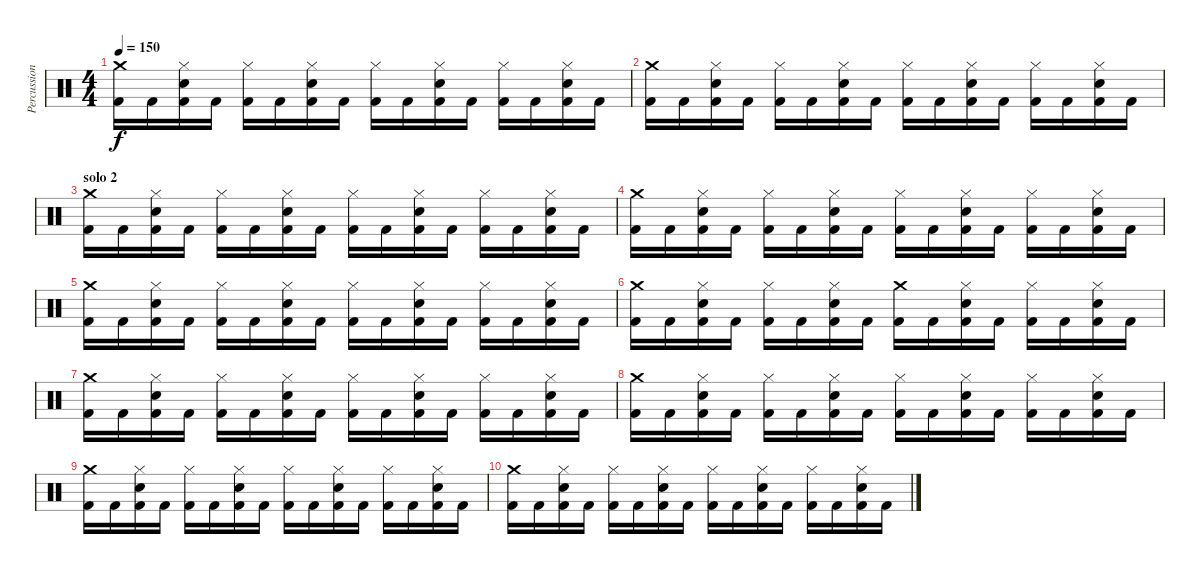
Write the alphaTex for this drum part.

\track ("Percussioni" "Percussion") {instrument percussion}
\staff {score}
\articulation defaults
\ts (4 4)
\tempo 150
\clef neutral
\ks c
("Crash medium (hit)" "Kick (hit) 2").16{dy f} "Kick (hit) 2".16 ("Hi-Hat (closed)" "Electric Snare (hit)" "Kick (hit) 2").16 "Kick (hit) 2".16 ("Hi-Hat (closed)" "Kick (hit) 2").16 "Kick (hit) 2".16 ("Hi-Hat (closed)" "Electric Snare (hit)" "Kick (hit) 2").16 "Kick (hit) 2".16 ("Hi-Hat (closed)" "Kick (hit) 2").16 "Kick (hit) 2".16 ("Hi-Hat (closed)" "Electric Snare (hit)" "Kick (hit) 2").16 "Kick (hit) 2".16 ("Hi-Hat (closed)" "Kick (hit) 2").16 "Kick (hit) 2".16 ("Hi-Hat (closed)" "Electric Snare (hit)" "Kick (hit) 2").16 "Kick (hit) 2".16 |
("Crash medium (hit)" "Kick (hit) 2").16 "Kick (hit) 2".16 ("Hi-Hat (closed)" "Electric Snare (hit)" "Kick (hit) 2").16 "Kick (hit) 2".16 ("Hi-Hat (closed)" "Kick (hit) 2").16 "Kick (hit) 2".16 ("Hi-Hat (closed)" "Electric Snare (hit)" "Kick (hit) 2").16 "Kick (hit) 2".16 ("Hi-Hat (closed)" "Kick (hit) 2").16 "Kick (hit) 2".16 ("Hi-Hat (closed)" "Electric Snare (hit)" "Kick (hit) 2").16 "Kick (hit) 2".16 ("Hi-Hat (closed)" "Kick (hit) 2").16 "Kick (hit) 2".16 ("Hi-Hat (closed)" "Electric Snare (hit)" "Kick (hit) 2").16 "Kick (hit) 2".16 |
\section ("" "solo 2")
("Crash medium (hit)" "Kick (hit) 2").16 "Kick (hit) 2".16 ("Hi-Hat (closed)" "Electric Snare (hit)" "Kick (hit) 2").16 "Kick (hit) 2".16 ("Hi-Hat (closed)" "Kick (hit) 2").16 "Kick (hit) 2".16 ("Hi-Hat (closed)" "Electric Snare (hit)" "Kick (hit) 2").16 "Kick (hit) 2".16 ("Hi-Hat (closed)" "Kick (hit) 2").16 "Kick (hit) 2".16 ("Hi-Hat (closed)" "Electric Snare (hit)" "Kick (hit) 2").16 "Kick (hit) 2".16 ("Hi-Hat (closed)" "Kick (hit) 2").16 "Kick (hit) 2".16 ("Hi-Hat (closed)" "Electric Snare (hit)" "Kick (hit) 2").16 "Kick (hit) 2".16 |
("Crash medium (hit)" "Kick (hit) 2").16 "Kick (hit) 2".16 ("Hi-Hat (closed)" "Electric Snare (hit)" "Kick (hit) 2").16 "Kick (hit) 2".16 ("Hi-Hat (closed)" "Kick (hit) 2").16 "Kick (hit) 2".16 ("Hi-Hat (closed)" "Electric Snare (hit)" "Kick (hit) 2").16 "Kick (hit) 2".16 ("Hi-Hat (closed)" "Kick (hit) 2").16 "Kick (hit) 2".16 ("Hi-Hat (closed)" "Electric Snare (hit)" "Kick (hit) 2").16 "Kick (hit) 2".16 ("Hi-Hat (closed)" "Kick (hit) 2").16 "Kick (hit) 2".16 ("Hi-Hat (closed)" "Electric Snare (hit)" "Kick (hit) 2").16 "Kick (hit) 2".16 |
("Crash medium (hit)" "Kick (hit) 2").16 "Kick (hit) 2".16 ("Hi-Hat (closed)" "Electric Snare (hit)" "Kick (hit) 2").16 "Kick (hit) 2".16 ("Hi-Hat (closed)" "Kick (hit) 2").16 "Kick (hit) 2".16 ("Hi-Hat (closed)" "Electric Snare (hit)" "Kick (hit) 2").16 "Kick (hit) 2".16 ("Hi-Hat (closed)" "Kick (hit) 2").16 "Kick (hit) 2".16 ("Hi-Hat (closed)" "Electric Snare (hit)" "Kick (hit) 2").16 "Kick (hit) 2".16 ("Hi-Hat (closed)" "Kick (hit) 2").16 "Kick (hit) 2".16 ("Hi-Hat (closed)" "Electric Snare (hit)" "Kick (hit) 2").16 "Kick (hit) 2".16 |
("Crash medium (hit)" "Kick (hit) 2").16 "Kick (hit) 2".16 ("Hi-Hat (closed)" "Electric Snare (hit)" "Kick (hit) 2").16 "Kick (hit) 2".16 ("Hi-Hat (closed)" "Kick (hit) 2").16 "Kick (hit) 2".16 ("Hi-Hat (closed)" "Electric Snare (hit)" "Kick (hit) 2").16 "Kick (hit) 2".16 ("Crash medium (hit)" "Kick (hit) 2").16 "Kick (hit) 2".16 ("Hi-Hat (closed)" "Electric Snare (hit)" "Kick (hit) 2").16 "Kick (hit) 2".16 ("Hi-Hat (closed)" "Kick (hit) 2").16 "Kick (hit) 2".16 ("Hi-Hat (closed)" "Electric Snare (hit)" "Kick (hit) 2").16 "Kick (hit) 2".16 |
("Crash medium (hit)" "Kick (hit) 2").16 "Kick (hit) 2".16 ("Hi-Hat (closed)" "Electric Snare (hit)" "Kick (hit) 2").16 "Kick (hit) 2".16 ("Hi-Hat (closed)" "Kick (hit) 2").16 "Kick (hit) 2".16 ("Hi-Hat (closed)" "Electric Snare (hit)" "Kick (hit) 2").16 "Kick (hit) 2".16 ("Hi-Hat (closed)" "Kick (hit) 2").16 "Kick (hit) 2".16 ("Hi-Hat (closed)" "Electric Snare (hit)" "Kick (hit) 2").16 "Kick (hit) 2".16 ("Hi-Hat (closed)" "Kick (hit) 2").16 "Kick (hit) 2".16 ("Hi-Hat (closed)" "Electric Snare (hit)" "Kick (hit) 2").16 "Kick (hit) 2".16 |
("Crash medium (hit)" "Kick (hit) 2").16 "Kick (hit) 2".16 ("Hi-Hat (closed)" "Electric Snare (hit)" "Kick (hit) 2").16 "Kick (hit) 2".16 ("Hi-Hat (closed)" "Kick (hit) 2").16 "Kick (hit) 2".16 ("Hi-Hat (closed)" "Electric Snare (hit)" "Kick (hit) 2").16 "Kick (hit) 2".16 ("Hi-Hat (closed)" "Kick (hit) 2").16 "Kick (hit) 2".16 ("Hi-Hat (closed)" "Electric Snare (hit)" "Kick (hit) 2").16 "Kick (hit) 2".16 ("Hi-Hat (closed)" "Kick (hit) 2").16 "Kick (hit) 2".16 ("Hi-Hat (closed)" "Electric Snare (hit)" "Kick (hit) 2").16 "Kick (hit) 2".16 |
("Crash medium (hit)" "Kick (hit) 2").16 "Kick (hit) 2".16 ("Hi-Hat (closed)" "Electric Snare (hit)" "Kick (hit) 2").16 "Kick (hit) 2".16 ("Hi-Hat (closed)" "Kick (hit) 2").16 "Kick (hit) 2".16 ("Hi-Hat (closed)" "Electric Snare (hit)" "Kick (hit) 2").16 "Kick (hit) 2".16 ("Hi-Hat (closed)" "Kick (hit) 2").16 "Kick (hit) 2".16 ("Hi-Hat (closed)" "Electric Snare (hit)" "Kick (hit) 2").16 "Kick (hit) 2".16 ("Hi-Hat (closed)" "Kick (hit) 2").16 "Kick (hit) 2".16 ("Hi-Hat (closed)" "Electric Snare (hit)" "Kick (hit) 2").16 "Kick (hit) 2".16 |
("Crash medium (hit)" "Kick (hit) 2").16 "Kick (hit) 2".16 ("Hi-Hat (closed)" "Electric Snare (hit)" "Kick (hit) 2").16 "Kick (hit) 2".16 ("Hi-Hat (closed)" "Kick (hit) 2").16 "Kick (hit) 2".16 ("Hi-Hat (closed)" "Electric Snare (hit)" "Kick (hit) 2").16 "Kick (hit) 2".16 ("Hi-Hat (closed)" "Kick (hit) 2").16 "Kick (hit) 2".16 ("Hi-Hat (closed)" "Electric Snare (hit)" "Kick (hit) 2").16 "Kick (hit) 2".16 ("Hi-Hat (closed)" "Kick (hit) 2").16 "Kick (hit) 2".16 ("Hi-Hat (closed)" "Electric Snare (hit)" "Kick (hit) 2").16 "Kick (hit) 2".16
